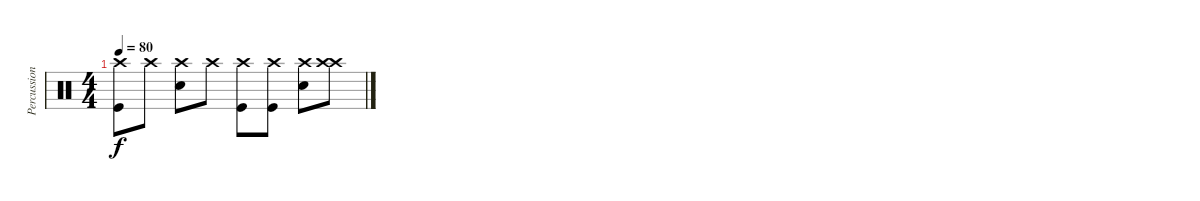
\track ("Percussions" "Percussion") {instrument percussion}
\staff {score}
\articulation defaults
\ts (4 4)
\tempo 80
\clef neutral
\ks c
("Crash high (hit)" "Kick (hit)").8{dy f volume 16} "Crash high (hit)".8 ("Crash high (hit)" "Electric Snare (hit)").8 "Crash high (hit)".8 ("Crash high (hit)" "Kick (hit)").8 ("Crash high (hit)" "Kick (hit)").8 ("Crash high (hit)" "Electric Snare (hit)").8 ("Crash high (hit)" "Crash high (hit)").8
